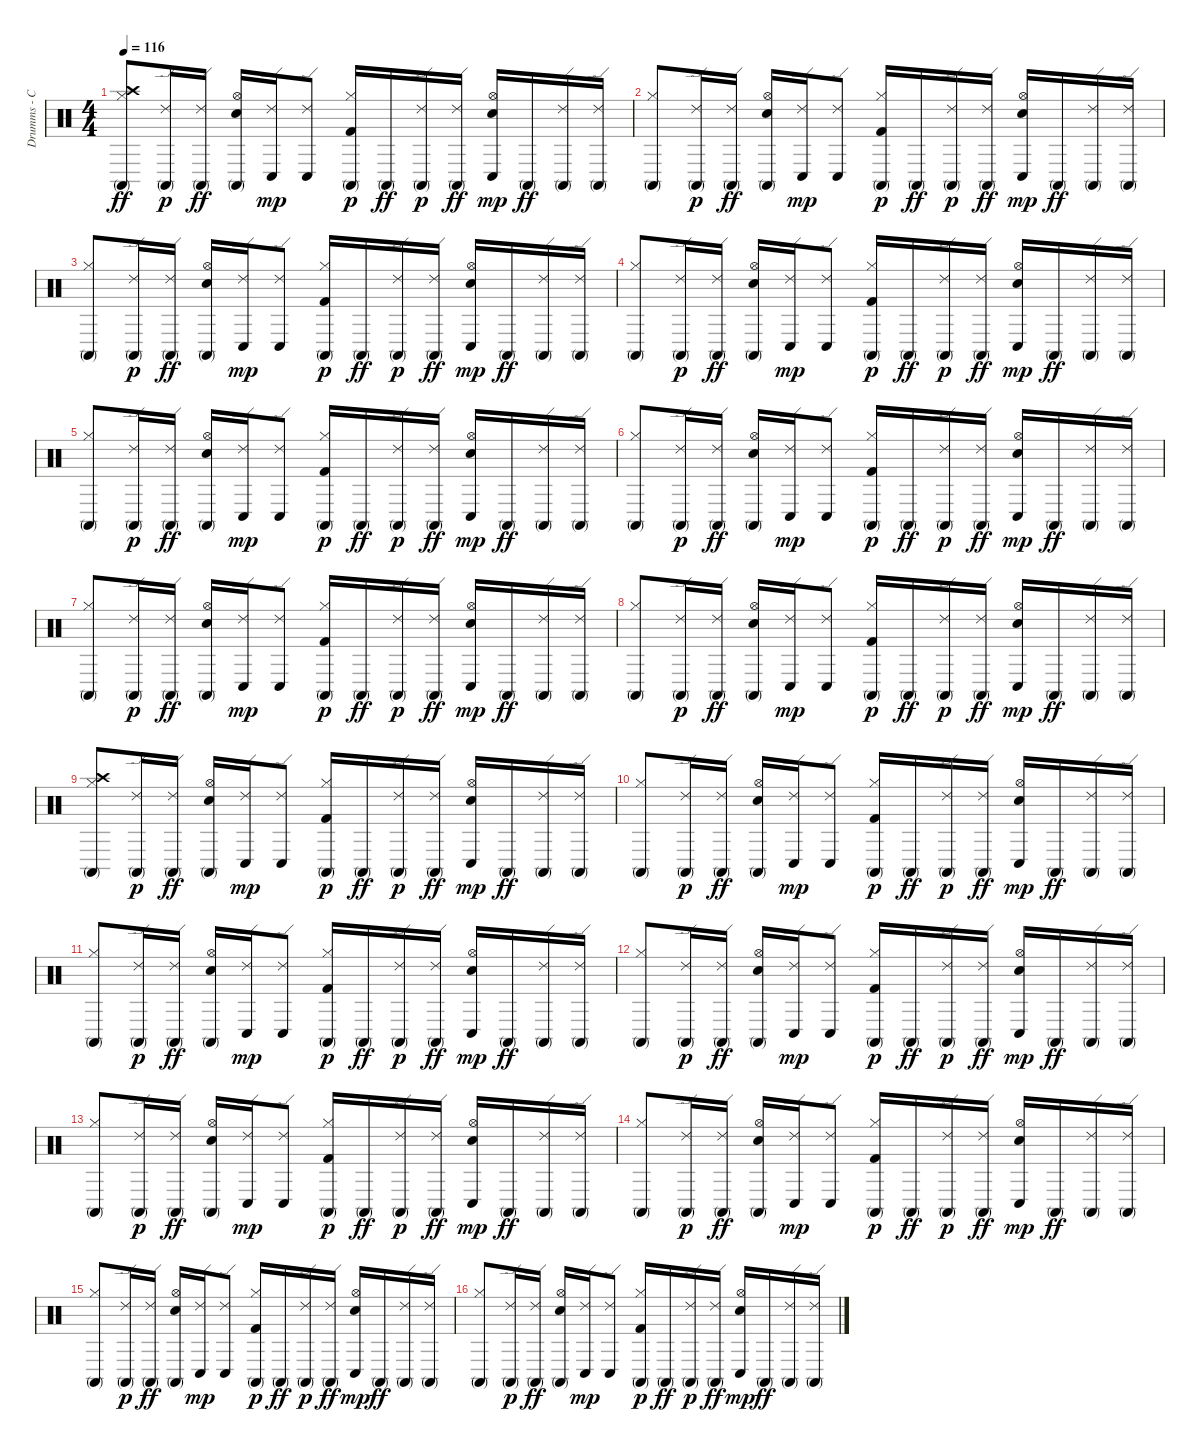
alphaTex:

\track ("Drumms - Conga" "Drumms - C") {instrument percussion}
\staff {score}
\articulation defaults
\ts (4 4)
\section ("" "")
\tempo 116
\clef neutral
\ks c
("Conga high (mute)" "Crash high (hit)" "Hi-Hat (closed)").8{dy ff} ("Conga high (mute)" "Ride (edge) 2").16{dy p} ("Conga high (mute)" "Ride (edge) 2").16{dy ff} ("Conga high (mute)" "Snare (hit) 2" "Hi-Hat (open)").16 ("Conga low (hit)" "Ride (edge) 2").16{dy mp} ("Conga low (hit)" "Ride (edge) 2").8 ("Conga high (mute)" "Kick (hit) 2" "Hi-Hat (closed)").16{dy p} "Conga high (mute)".16{dy ff} ("Conga high (mute)" "Ride (edge) 2").16{dy p} ("Conga high (mute)" "Ride (edge) 2").16{dy ff} ("Conga low (hit)" "Snare (hit) 2" "Hi-Hat (open)").16{dy mp} "Conga high (mute)".16{dy ff} ("Conga high (mute)" "Ride (edge) 2").16 ("Conga high (mute)" "Ride (edge) 2").16 |
("Conga high (mute)" "Hi-Hat (closed)").8 ("Conga high (mute)" "Ride (edge) 2").16{dy p} ("Conga high (mute)" "Ride (edge) 2").16{dy ff} ("Conga high (mute)" "Snare (hit) 2" "Hi-Hat (open)").16 ("Conga low (hit)" "Ride (edge) 2").16{dy mp} ("Conga low (hit)" "Ride (edge) 2").8 ("Conga high (mute)" "Kick (hit) 2" "Hi-Hat (closed)").16{dy p} "Conga high (mute)".16{dy ff} ("Conga high (mute)" "Ride (edge) 2").16{dy p} ("Conga high (mute)" "Ride (edge) 2").16{dy ff} ("Conga low (hit)" "Snare (hit) 2" "Hi-Hat (open)").16{dy mp} "Conga high (mute)".16{dy ff} ("Conga high (mute)" "Ride (edge) 2").16 ("Conga high (mute)" "Ride (edge) 2").16 |
("Conga high (mute)" "Hi-Hat (closed)").8 ("Conga high (mute)" "Ride (edge) 2").16{dy p} ("Conga high (mute)" "Ride (edge) 2").16{dy ff} ("Conga high (mute)" "Snare (hit) 2" "Hi-Hat (open)").16 ("Conga low (hit)" "Ride (edge) 2").16{dy mp} ("Conga low (hit)" "Ride (edge) 2").8 ("Conga high (mute)" "Kick (hit) 2" "Hi-Hat (closed)").16{dy p} "Conga high (mute)".16{dy ff} ("Conga high (mute)" "Ride (edge) 2").16{dy p} ("Conga high (mute)" "Ride (edge) 2").16{dy ff} ("Conga low (hit)" "Snare (hit) 2" "Hi-Hat (open)").16{dy mp} "Conga high (mute)".16{dy ff} ("Conga high (mute)" "Ride (edge) 2").16 ("Conga high (mute)" "Ride (edge) 2").16 |
("Conga high (mute)" "Hi-Hat (closed)").8 ("Conga high (mute)" "Ride (edge) 2").16{dy p} ("Conga high (mute)" "Ride (edge) 2").16{dy ff} ("Conga high (mute)" "Snare (hit) 2" "Hi-Hat (open)").16 ("Conga low (hit)" "Ride (edge) 2").16{dy mp} ("Conga low (hit)" "Ride (edge) 2").8 ("Conga high (mute)" "Kick (hit) 2" "Hi-Hat (closed)").16{dy p} "Conga high (mute)".16{dy ff} ("Conga high (mute)" "Ride (edge) 2").16{dy p} ("Conga high (mute)" "Ride (edge) 2").16{dy ff} ("Conga low (hit)" "Snare (hit) 2" "Hi-Hat (open)").16{dy mp} "Conga high (mute)".16{dy ff} ("Conga high (mute)" "Ride (edge) 2").16 ("Conga high (mute)" "Ride (edge) 2").16 |
("Conga high (mute)" "Hi-Hat (closed)").8 ("Conga high (mute)" "Ride (edge) 2").16{dy p} ("Conga high (mute)" "Ride (edge) 2").16{dy ff} ("Conga high (mute)" "Snare (hit) 2" "Hi-Hat (open)").16 ("Conga low (hit)" "Ride (edge) 2").16{dy mp} ("Conga low (hit)" "Ride (edge) 2").8 ("Conga high (mute)" "Kick (hit) 2" "Hi-Hat (closed)").16{dy p} "Conga high (mute)".16{dy ff} ("Conga high (mute)" "Ride (edge) 2").16{dy p} ("Conga high (mute)" "Ride (edge) 2").16{dy ff} ("Conga low (hit)" "Snare (hit) 2" "Hi-Hat (open)").16{dy mp} "Conga high (mute)".16{dy ff} ("Conga high (mute)" "Ride (edge) 2").16 ("Conga high (mute)" "Ride (edge) 2").16 |
("Conga high (mute)" "Hi-Hat (closed)").8 ("Conga high (mute)" "Ride (edge) 2").16{dy p} ("Conga high (mute)" "Ride (edge) 2").16{dy ff} ("Conga high (mute)" "Snare (hit) 2" "Hi-Hat (open)").16 ("Conga low (hit)" "Ride (edge) 2").16{dy mp} ("Conga low (hit)" "Ride (edge) 2").8 ("Conga high (mute)" "Kick (hit) 2" "Hi-Hat (closed)").16{dy p} "Conga high (mute)".16{dy ff} ("Conga high (mute)" "Ride (edge) 2").16{dy p} ("Conga high (mute)" "Ride (edge) 2").16{dy ff} ("Conga low (hit)" "Snare (hit) 2" "Hi-Hat (open)").16{dy mp} "Conga high (mute)".16{dy ff} ("Conga high (mute)" "Ride (edge) 2").16 ("Conga high (mute)" "Ride (edge) 2").16 |
("Conga high (mute)" "Hi-Hat (closed)").8 ("Conga high (mute)" "Ride (edge) 2").16{dy p} ("Conga high (mute)" "Ride (edge) 2").16{dy ff} ("Conga high (mute)" "Snare (hit) 2" "Hi-Hat (open)").16 ("Conga low (hit)" "Ride (edge) 2").16{dy mp} ("Conga low (hit)" "Ride (edge) 2").8 ("Conga high (mute)" "Kick (hit) 2" "Hi-Hat (closed)").16{dy p} "Conga high (mute)".16{dy ff} ("Conga high (mute)" "Ride (edge) 2").16{dy p} ("Conga high (mute)" "Ride (edge) 2").16{dy ff} ("Conga low (hit)" "Snare (hit) 2" "Hi-Hat (open)").16{dy mp} "Conga high (mute)".16{dy ff} ("Conga high (mute)" "Ride (edge) 2").16 ("Conga high (mute)" "Ride (edge) 2").16 |
("Conga high (mute)" "Hi-Hat (closed)").8 ("Conga high (mute)" "Ride (edge) 2").16{dy p} ("Conga high (mute)" "Ride (edge) 2").16{dy ff} ("Conga high (mute)" "Snare (hit) 2" "Hi-Hat (open)").16 ("Conga low (hit)" "Ride (edge) 2").16{dy mp} ("Conga low (hit)" "Ride (edge) 2").8 ("Conga high (mute)" "Kick (hit) 2" "Hi-Hat (closed)").16{dy p} "Conga high (mute)".16{dy ff} ("Conga high (mute)" "Ride (edge) 2").16{dy p} ("Conga high (mute)" "Ride (edge) 2").16{dy ff} ("Conga low (hit)" "Snare (hit) 2" "Hi-Hat (open)").16{dy mp} "Conga high (mute)".16{dy ff} ("Conga high (mute)" "Ride (edge) 2").16 ("Conga high (mute)" "Ride (edge) 2").16 |
\section ("" "")
("Conga high (mute)" "Crash high (hit)" "Hi-Hat (closed)").8 ("Conga high (mute)" "Ride (edge) 2").16{dy p} ("Conga high (mute)" "Ride (edge) 2").16{dy ff} ("Conga high (mute)" "Snare (hit) 2" "Hi-Hat (open)").16 ("Conga low (hit)" "Ride (edge) 2").16{dy mp} ("Conga low (hit)" "Ride (edge) 2").8 ("Conga high (mute)" "Kick (hit) 2" "Hi-Hat (closed)").16{dy p} "Conga high (mute)".16{dy ff} ("Conga high (mute)" "Ride (edge) 2").16{dy p} ("Conga high (mute)" "Ride (edge) 2").16{dy ff} ("Conga low (hit)" "Snare (hit) 2" "Hi-Hat (open)").16{dy mp} "Conga high (mute)".16{dy ff} ("Conga high (mute)" "Ride (edge) 2").16 ("Conga high (mute)" "Ride (edge) 2").16 |
("Conga high (mute)" "Hi-Hat (closed)").8 ("Conga high (mute)" "Ride (edge) 2").16{dy p} ("Conga high (mute)" "Ride (edge) 2").16{dy ff} ("Conga high (mute)" "Snare (hit) 2" "Hi-Hat (open)").16 ("Conga low (hit)" "Ride (edge) 2").16{dy mp} ("Conga low (hit)" "Ride (edge) 2").8 ("Conga high (mute)" "Kick (hit) 2" "Hi-Hat (closed)").16{dy p} "Conga high (mute)".16{dy ff} ("Conga high (mute)" "Ride (edge) 2").16{dy p} ("Conga high (mute)" "Ride (edge) 2").16{dy ff} ("Conga low (hit)" "Snare (hit) 2" "Hi-Hat (open)").16{dy mp} "Conga high (mute)".16{dy ff} ("Conga high (mute)" "Ride (edge) 2").16 ("Conga high (mute)" "Ride (edge) 2").16 |
("Conga high (mute)" "Hi-Hat (closed)").8 ("Conga high (mute)" "Ride (edge) 2").16{dy p} ("Conga high (mute)" "Ride (edge) 2").16{dy ff} ("Conga high (mute)" "Snare (hit) 2" "Hi-Hat (open)").16 ("Conga low (hit)" "Ride (edge) 2").16{dy mp} ("Conga low (hit)" "Ride (edge) 2").8 ("Conga high (mute)" "Kick (hit) 2" "Hi-Hat (closed)").16{dy p} "Conga high (mute)".16{dy ff} ("Conga high (mute)" "Ride (edge) 2").16{dy p} ("Conga high (mute)" "Ride (edge) 2").16{dy ff} ("Conga low (hit)" "Snare (hit) 2" "Hi-Hat (open)").16{dy mp} "Conga high (mute)".16{dy ff} ("Conga high (mute)" "Ride (edge) 2").16 ("Conga high (mute)" "Ride (edge) 2").16 |
("Conga high (mute)" "Hi-Hat (closed)").8 ("Conga high (mute)" "Ride (edge) 2").16{dy p} ("Conga high (mute)" "Ride (edge) 2").16{dy ff} ("Conga high (mute)" "Snare (hit) 2" "Hi-Hat (open)").16 ("Conga low (hit)" "Ride (edge) 2").16{dy mp} ("Conga low (hit)" "Ride (edge) 2").8 ("Conga high (mute)" "Kick (hit) 2" "Hi-Hat (closed)").16{dy p} "Conga high (mute)".16{dy ff} ("Conga high (mute)" "Ride (edge) 2").16{dy p} ("Conga high (mute)" "Ride (edge) 2").16{dy ff} ("Conga low (hit)" "Snare (hit) 2" "Hi-Hat (open)").16{dy mp} "Conga high (mute)".16{dy ff} ("Conga high (mute)" "Ride (edge) 2").16 ("Conga high (mute)" "Ride (edge) 2").16 |
("Conga high (mute)" "Hi-Hat (closed)").8 ("Conga high (mute)" "Ride (edge) 2").16{dy p} ("Conga high (mute)" "Ride (edge) 2").16{dy ff} ("Conga high (mute)" "Snare (hit) 2" "Hi-Hat (open)").16 ("Conga low (hit)" "Ride (edge) 2").16{dy mp} ("Conga low (hit)" "Ride (edge) 2").8 ("Conga high (mute)" "Kick (hit) 2" "Hi-Hat (closed)").16{dy p} "Conga high (mute)".16{dy ff} ("Conga high (mute)" "Ride (edge) 2").16{dy p} ("Conga high (mute)" "Ride (edge) 2").16{dy ff} ("Conga low (hit)" "Snare (hit) 2" "Hi-Hat (open)").16{dy mp} "Conga high (mute)".16{dy ff} ("Conga high (mute)" "Ride (edge) 2").16 ("Conga high (mute)" "Ride (edge) 2").16 |
("Conga high (mute)" "Hi-Hat (closed)").8 ("Conga high (mute)" "Ride (edge) 2").16{dy p} ("Conga high (mute)" "Ride (edge) 2").16{dy ff} ("Conga high (mute)" "Snare (hit) 2" "Hi-Hat (open)").16 ("Conga low (hit)" "Ride (edge) 2").16{dy mp} ("Conga low (hit)" "Ride (edge) 2").8 ("Conga high (mute)" "Kick (hit) 2" "Hi-Hat (closed)").16{dy p} "Conga high (mute)".16{dy ff} ("Conga high (mute)" "Ride (edge) 2").16{dy p} ("Conga high (mute)" "Ride (edge) 2").16{dy ff} ("Conga low (hit)" "Snare (hit) 2" "Hi-Hat (open)").16{dy mp} "Conga high (mute)".16{dy ff} ("Conga high (mute)" "Ride (edge) 2").16 ("Conga high (mute)" "Ride (edge) 2").16 |
("Conga high (mute)" "Hi-Hat (closed)").8 ("Conga high (mute)" "Ride (edge) 2").16{dy p} ("Conga high (mute)" "Ride (edge) 2").16{dy ff} ("Conga high (mute)" "Snare (hit) 2" "Hi-Hat (open)").16 ("Conga low (hit)" "Ride (edge) 2").16{dy mp} ("Conga low (hit)" "Ride (edge) 2").8 ("Conga high (mute)" "Kick (hit) 2" "Hi-Hat (closed)").16{dy p} "Conga high (mute)".16{dy ff} ("Conga high (mute)" "Ride (edge) 2").16{dy p} ("Conga high (mute)" "Ride (edge) 2").16{dy ff} ("Conga low (hit)" "Snare (hit) 2" "Hi-Hat (open)").16{dy mp} "Conga high (mute)".16{dy ff} ("Conga high (mute)" "Ride (edge) 2").16 ("Conga high (mute)" "Ride (edge) 2").16 |
("Conga high (mute)" "Hi-Hat (closed)").8 ("Conga high (mute)" "Ride (edge) 2").16{dy p} ("Conga high (mute)" "Ride (edge) 2").16{dy ff} ("Conga high (mute)" "Snare (hit) 2" "Hi-Hat (open)").16 ("Conga low (hit)" "Ride (edge) 2").16{dy mp} ("Conga low (hit)" "Ride (edge) 2").8 ("Conga high (mute)" "Kick (hit) 2" "Hi-Hat (closed)").16{dy p} "Conga high (mute)".16{dy ff} ("Conga high (mute)" "Ride (edge) 2").16{dy p} ("Conga high (mute)" "Ride (edge) 2").16{dy ff} ("Conga low (hit)" "Snare (hit) 2" "Hi-Hat (open)").16{dy mp} "Conga high (mute)".16{dy ff} ("Conga high (mute)" "Ride (edge) 2").16 ("Conga high (mute)" "Ride (edge) 2").16
